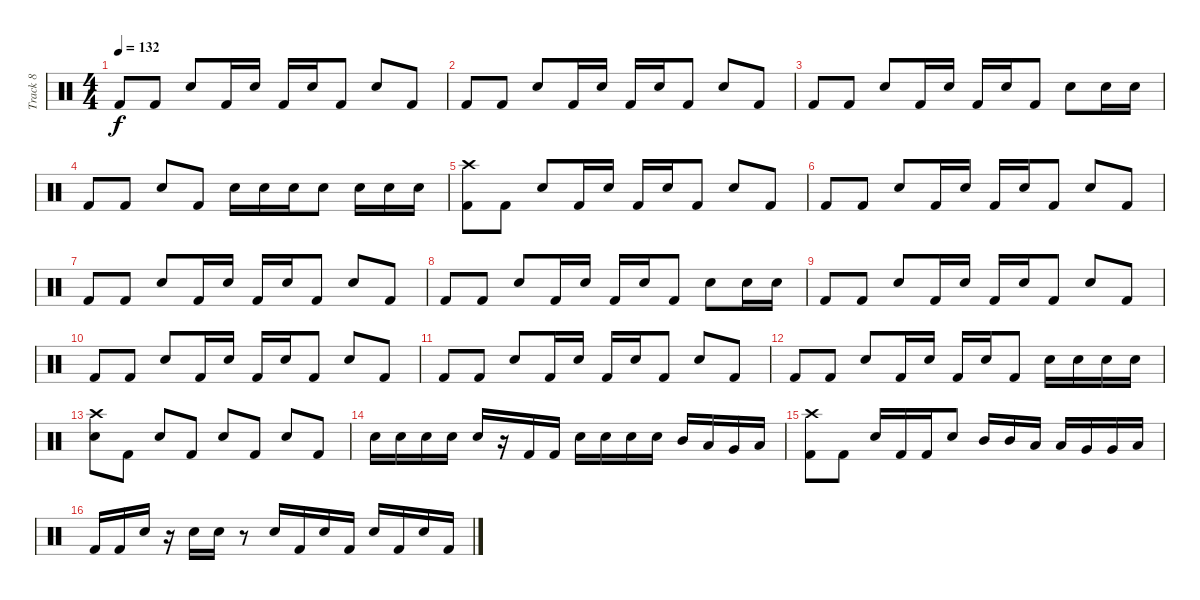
\track ("Track 8" "Track 8") {instrument percussion}
\staff {score}
\articulation defaults
\ts (4 4)
\tempo 132
\clef neutral
\ks c "Kick (hit) 2".8{dy f} "Kick (hit) 2".8 "Snare (hit) 2".8 "Kick (hit) 2".16 "Snare (hit) 2".16 "Kick (hit) 2".16 "Snare (hit) 2".16 "Kick (hit) 2".8 "Snare (hit) 2".8 "Kick (hit) 2".8
|
"Kick (hit) 2".8 "Kick (hit) 2".8 "Snare (hit) 2".8 "Kick (hit) 2".16 "Snare (hit) 2".16 "Kick (hit) 2".16 "Snare (hit) 2".16 "Kick (hit) 2".8 "Snare (hit) 2".8 "Kick (hit) 2".8 |
"Kick (hit) 2".8 "Kick (hit) 2".8 "Snare (hit) 2".8 "Kick (hit) 2".16 "Snare (hit) 2".16 "Kick (hit) 2".16 "Snare (hit) 2".16 "Kick (hit) 2".8 "Snare (hit) 2".8 "Snare (hit) 2".16 "Snare (hit) 2".16 |
"Kick (hit) 2".8 "Kick (hit) 2".8 "Snare (hit) 2".8 "Kick (hit) 2".8 "Snare (hit) 2".16 "Snare (hit) 2".16 "Snare (hit) 2".16 "Snare (hit) 2".8 "Snare (hit) 2".16 "Snare (hit) 2".16 "Snare (hit) 2".16 |
("Kick (hit) 2" "Crash high (hit)").8 "Kick (hit) 2".8 "Snare (hit) 2".8 "Kick (hit) 2".16 "Snare (hit) 2".16 "Kick (hit) 2".16 "Snare (hit) 2".16 "Kick (hit) 2".8 "Snare (hit) 2".8 "Kick (hit) 2".8 |
"Kick (hit) 2".8 "Kick (hit) 2".8 "Snare (hit) 2".8 "Kick (hit) 2".16 "Snare (hit) 2".16 "Kick (hit) 2".16 "Snare (hit) 2".16 "Kick (hit) 2".8 "Snare (hit) 2".8 "Kick (hit) 2".8 |
"Kick (hit) 2".8 "Kick (hit) 2".8 "Snare (hit) 2".8 "Kick (hit) 2".16 "Snare (hit) 2".16 "Kick (hit) 2".16 "Snare (hit) 2".16 "Kick (hit) 2".8 "Snare (hit) 2".8 "Kick (hit) 2".8 |
"Kick (hit) 2".8 "Kick (hit) 2".8 "Snare (hit) 2".8 "Kick (hit) 2".16 "Snare (hit) 2".16 "Kick (hit) 2".16 "Snare (hit) 2".16 "Kick (hit) 2".8 "Snare (hit) 2".8 "Snare (hit) 2".16 "Snare (hit) 2".16 |
"Kick (hit) 2".8 "Kick (hit) 2".8 "Snare (hit) 2".8 "Kick (hit) 2".16 "Snare (hit) 2".16 "Kick (hit) 2".16 "Snare (hit) 2".16 "Kick (hit) 2".8 "Snare (hit) 2".8 "Kick (hit) 2".8 |
"Kick (hit) 2".8 "Kick (hit) 2".8 "Snare (hit) 2".8 "Kick (hit) 2".16 "Snare (hit) 2".16 "Kick (hit) 2".16 "Snare (hit) 2".16 "Kick (hit) 2".8 "Snare (hit) 2".8 "Kick (hit) 2".8 |
"Kick (hit) 2".8 "Kick (hit) 2".8 "Snare (hit) 2".8 "Kick (hit) 2".16 "Snare (hit) 2".16 "Kick (hit) 2".16 "Snare (hit) 2".16 "Kick (hit) 2".8 "Snare (hit) 2".8 "Kick (hit) 2".8 |
"Kick (hit) 2".8 "Kick (hit) 2".8 "Snare (hit) 2".8 "Kick (hit) 2".16 "Snare (hit) 2".16 "Kick (hit) 2".16 "Snare (hit) 2".16 "Kick (hit) 2".8 "Snare (hit) 2".16 "Snare (hit) 2".16 "Snare (hit) 2".16 "Snare (hit) 2".16 |
("Snare (hit) 2" "Crash high (hit)").8 "Kick (hit) 2".8 "Snare (hit) 2".8 "Kick (hit) 2".8 "Snare (hit) 2".8 "Kick (hit) 2".8 "Snare (hit) 2".8 "Kick (hit) 2".8 |
"Snare (hit) 2".16 "Snare (hit) 2".16 "Snare (hit) 2".16 "Snare (hit) 2".16 "Snare (hit) 2".16 r.16 "Kick (hit) 2".16 "Kick (hit) 2".16 "Snare (hit) 2".16 "Snare (hit) 2".16 "Snare (hit) 2".16 "Snare (hit) 2".16 "Mid Tom (hit)".16 "Low Tom (hit)".16 "Very Low Tom (hit)".16 "Low Floor Tom (hit)".16 |
("Kick (hit) 2" "Crash high (hit)").8 "Kick (hit) 2".8 "Snare (hit) 2".16 "Kick (hit) 2".16 "Kick (hit) 2".16 "Snare (hit) 2".8 "Mid Tom (hit)".16 "Mid Tom (hit)".16 "Low Tom (hit)".16 "Low Tom (hit)".16 "Very Low Tom (hit)".16 "Very Low Tom (hit)".16 "Low Floor Tom (hit)".16 |
"Kick (hit) 2".16 "Kick (hit) 2".16 "Snare (hit) 2".16 r.16 "Snare (hit) 2".16 "Snare (hit) 2".16 r.8 "Snare (hit) 2".16 "Kick (hit) 2".16 "Snare (hit) 2".16 "Kick (hit) 2".16 "Snare (hit) 2".16 "Kick (hit) 2".16 "Snare (hit) 2".16 "Kick (hit) 2".16
